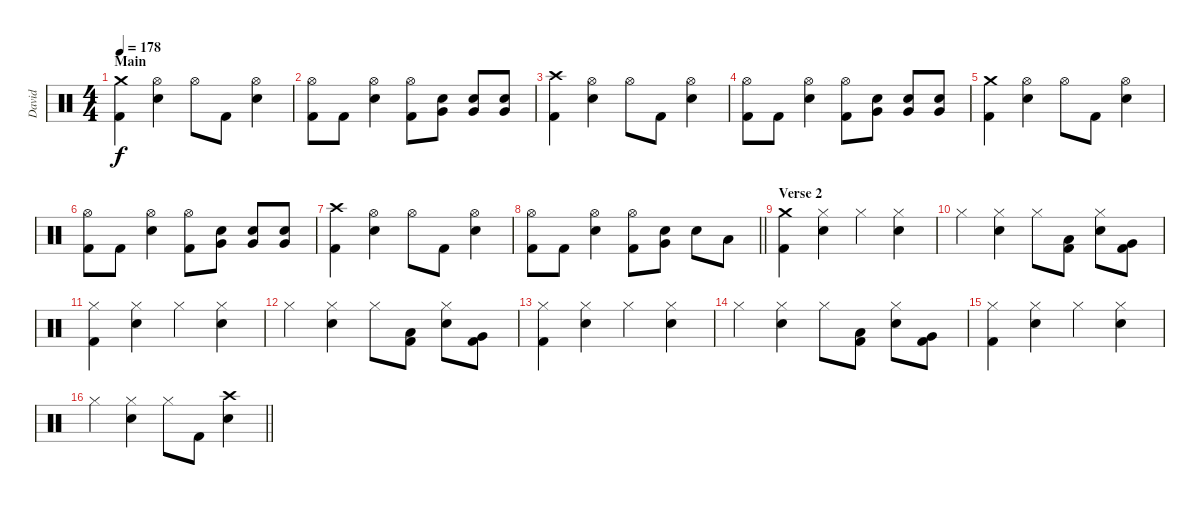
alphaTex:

\track ("David" "David") {instrument percussion}
\staff {score}
\articulation defaults
\ts (4 4)
\section ("" "Main")
\tempo 178
\clef neutral
\ks c
("Crash medium (hit)" "Kick (hit) 2").4{dy f} ("Hi-Hat (open)" "Electric Snare (hit)").4 "Hi-Hat (open)".8 "Kick (hit) 2".8 ("Hi-Hat (open)" "Electric Snare (hit)").4 |
("Hi-Hat (open)" "Kick (hit) 2").8 "Kick (hit) 2".8 ("Hi-Hat (open)" "Electric Snare (hit)").4 ("Hi-Hat (open)" "Kick (hit) 2").8 ("Electric Snare (hit)" "Very Low Tom (hit)").8 ("Electric Snare (hit)" "Very Low Tom (hit)").8 ("Electric Snare (hit)" "Very Low Tom (hit)").8 |
("Crash high (hit)" "Kick (hit) 2").4 ("Hi-Hat (open)" "Electric Snare (hit)").4 "Hi-Hat (open)".8 "Kick (hit) 2".8 ("Hi-Hat (open)" "Electric Snare (hit)").4 |
("Hi-Hat (open)" "Kick (hit) 2").8 "Kick (hit) 2".8 ("Hi-Hat (open)" "Electric Snare (hit)").4 ("Hi-Hat (open)" "Kick (hit) 2").8 ("Electric Snare (hit)" "Very Low Tom (hit)").8 ("Electric Snare (hit)" "Very Low Tom (hit)").8 ("Electric Snare (hit)" "Very Low Tom (hit)").8 |
("Crash medium (hit)" "Kick (hit) 2").4 ("Hi-Hat (open)" "Electric Snare (hit)").4 "Hi-Hat (open)".8 "Kick (hit) 2".8 ("Hi-Hat (open)" "Electric Snare (hit)").4 |
("Hi-Hat (open)" "Kick (hit) 2").8 "Kick (hit) 2".8 ("Hi-Hat (open)" "Electric Snare (hit)").4 ("Hi-Hat (open)" "Kick (hit) 2").8 ("Electric Snare (hit)" "Very Low Tom (hit)").8 ("Electric Snare (hit)" "Very Low Tom (hit)").8 ("Electric Snare (hit)" "Very Low Tom (hit)").8 |
("Crash high (hit)" "Kick (hit) 2").4 ("Hi-Hat (open)" "Electric Snare (hit)").4 "Hi-Hat (open)".8 "Kick (hit) 2".8 ("Hi-Hat (open)" "Electric Snare (hit)").4 |
\barLineRight lightlight
("Hi-Hat (open)" "Kick (hit) 2").8 "Kick (hit) 2".8 ("Hi-Hat (open)" "Electric Snare (hit)").4 ("Hi-Hat (open)" "Kick (hit) 2").8 ("Electric Snare (hit)" "Very Low Tom (hit)").8 "Electric Snare (hit)".8 "Low Tom (hit)".8 |
\section ("" "Verse 2")
("Crash medium (hit)" "Kick (hit) 2").4 ("Hi-Hat (closed)" "Electric Snare (hit)").4 "Hi-Hat (closed)".4 ("Hi-Hat (closed)" "Electric Snare (hit)").4 |
"Hi-Hat (closed)".4 ("Hi-Hat (closed)" "Electric Snare (hit)").4 "Hi-Hat (closed)".8 ("Low Tom (hit)" "Kick (hit) 2").8 ("Hi-Hat (closed)" "Electric Snare (hit)").8 ("Very Low Tom (hit)" "Kick (hit) 2").8 |
("Hi-Hat (closed)" "Kick (hit) 2").4 ("Hi-Hat (closed)" "Electric Snare (hit)").4 "Hi-Hat (closed)".4 ("Hi-Hat (closed)" "Electric Snare (hit)").4 |
"Hi-Hat (closed)".4 ("Hi-Hat (closed)" "Electric Snare (hit)").4 "Hi-Hat (closed)".8 ("Low Tom (hit)" "Kick (hit) 2").8 ("Hi-Hat (closed)" "Electric Snare (hit)").8 ("Very Low Tom (hit)" "Kick (hit) 2").8 |
("Hi-Hat (closed)" "Kick (hit) 2").4 ("Hi-Hat (closed)" "Electric Snare (hit)").4 "Hi-Hat (closed)".4 ("Hi-Hat (closed)" "Electric Snare (hit)").4 |
"Hi-Hat (closed)".4 ("Hi-Hat (closed)" "Electric Snare (hit)").4 "Hi-Hat (closed)".8 ("Low Tom (hit)" "Kick (hit) 2").8 ("Hi-Hat (closed)" "Electric Snare (hit)").8 ("Very Low Tom (hit)" "Kick (hit) 2").8 |
("Hi-Hat (closed)" "Kick (hit) 2").4 ("Hi-Hat (closed)" "Electric Snare (hit)").4 "Hi-Hat (closed)".4 ("Hi-Hat (closed)" "Electric Snare (hit)").4 |
\barLineRight lightlight "Hi-Hat (closed)".4
("Hi-Hat (closed)" "Electric Snare (hit)").4 "Hi-Hat (closed)".8 "Kick (hit) 2".8 ("Crash high (hit)" "Electric Snare (hit)").4
